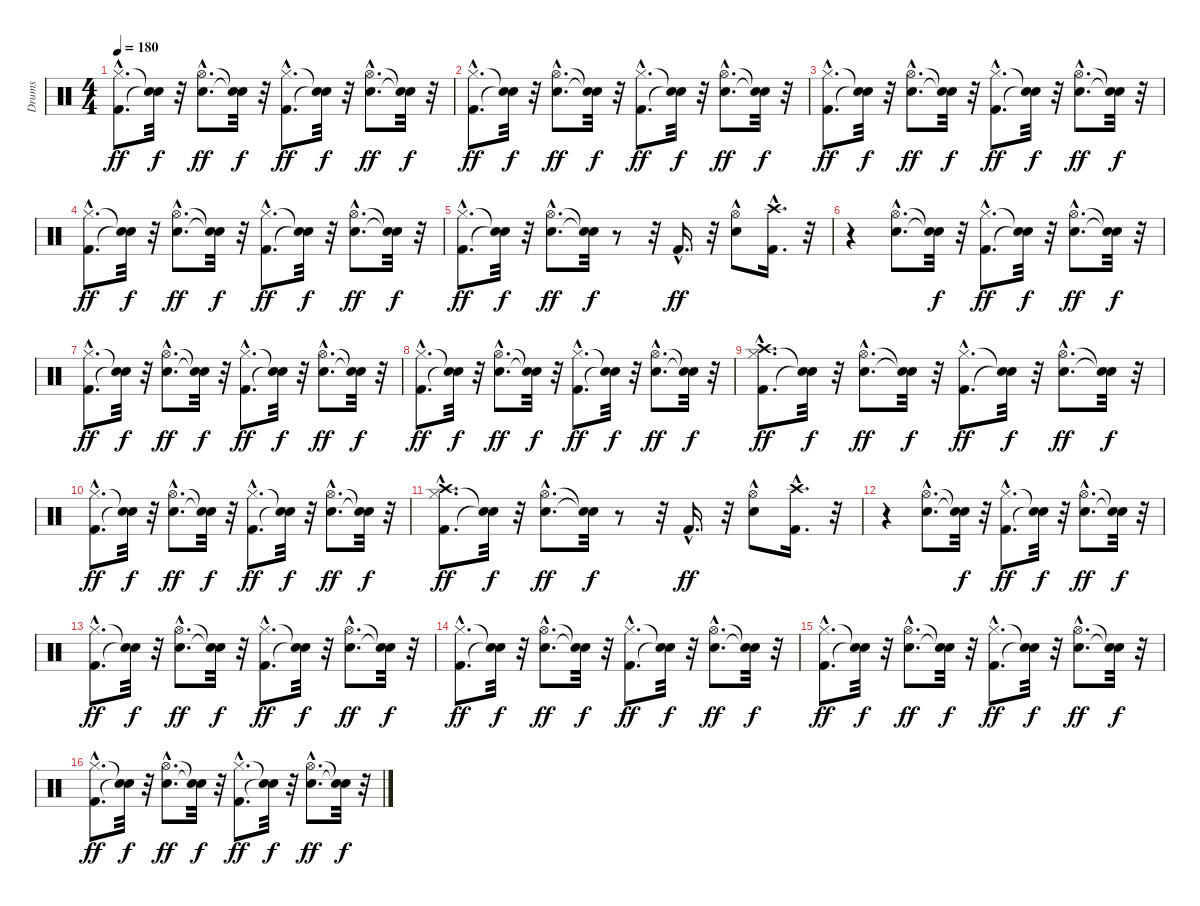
\track ("Drums" "Drums") {instrument percussion}
\staff {score}
\articulation defaults
\ts (4 4)
\tempo 180
\clef neutral
\ks c
("Kick (hit) 2"{hac} "Hi-Hat (closed)"{hac}).8{d dy ff} ("Snare (hit)"{t} "Snare (hit)"{t}).32{dy f} r.32 ("Snare (hit) 2"{hac} "Hi-Hat (open)"{hac}).8{d dy ff} ("Snare (hit)"{t} "Snare (hit)"{t}).32{dy f} r.32 ("Kick (hit) 2"{hac} "Hi-Hat (closed)"{hac}).8{d dy ff} ("Snare (hit)"{t} "Snare (hit)"{t}).32{dy f} r.32 ("Snare (hit) 2"{hac} "Hi-Hat (open)"{hac}).8{d dy ff} ("Snare (hit)"{t} "Snare (hit)"{t}).32{dy f} r.32 |
("Kick (hit) 2"{hac} "Hi-Hat (closed)"{hac}).8{d dy ff} ("Snare (hit)"{t} "Snare (hit)"{t}).32{dy f} r.32 ("Snare (hit) 2"{hac} "Hi-Hat (open)"{hac}).8{d dy ff} ("Snare (hit)"{t} "Snare (hit)"{t}).32{dy f} r.32 ("Kick (hit) 2"{hac} "Hi-Hat (closed)"{hac}).8{d dy ff} ("Snare (hit)"{t} "Snare (hit)"{t}).32{dy f} r.32 ("Snare (hit) 2"{hac} "Hi-Hat (open)"{hac}).8{d dy ff} ("Snare (hit)"{t} "Snare (hit)"{t}).32{dy f} r.32 |
("Kick (hit) 2"{hac} "Hi-Hat (closed)"{hac}).8{d dy ff} ("Snare (hit)"{t} "Snare (hit)"{t}).32{dy f} r.32 ("Snare (hit) 2"{hac} "Hi-Hat (open)"{hac}).8{d dy ff} ("Snare (hit)"{t} "Snare (hit)"{t}).32{dy f} r.32 ("Kick (hit) 2"{hac} "Hi-Hat (closed)"{hac}).8{d dy ff} ("Snare (hit)"{t} "Snare (hit)"{t}).32{dy f} r.32 ("Snare (hit) 2"{hac} "Hi-Hat (open)"{hac}).8{d dy ff} ("Snare (hit)"{t} "Snare (hit)"{t}).32{dy f} r.32 |
("Kick (hit) 2"{hac} "Hi-Hat (closed)"{hac}).8{d dy ff} ("Snare (hit)"{t} "Snare (hit)"{t}).32{dy f} r.32 ("Snare (hit) 2"{hac} "Hi-Hat (open)"{hac}).8{d dy ff} ("Snare (hit)"{t} "Snare (hit)"{t}).32{dy f} r.32 ("Kick (hit) 2"{hac} "Hi-Hat (closed)"{hac}).8{d dy ff} ("Snare (hit)"{t} "Snare (hit)"{t}).32{dy f} r.32 ("Snare (hit) 2"{hac} "Hi-Hat (open)"{hac}).8{d dy ff} ("Snare (hit)"{t} "Snare (hit)"{t}).32{dy f} r.32 |
("Kick (hit) 2"{hac} "Hi-Hat (closed)"{hac}).8{d dy ff} ("Snare (hit)"{t} "Snare (hit)"{t}).32{dy f} r.32 ("Snare (hit) 2"{hac} "Hi-Hat (open)"{hac}).8{d dy ff} ("Snare (hit)"{t} "Snare (hit)"{t}).32{dy f} r.8 r.32 "Kick (hit) 2"{hac}.16{d dy ff} r.32 ("Snare (hit) 2"{hac} "Hi-Hat (open)"{hac}).8 ("Kick (hit) 2"{hac} "Crash high (hit)"{hac}).16{d} r.32 |
r.4 ("Snare (hit) 2"{hac} "Hi-Hat (open)"{hac}).8{d} ("Snare (hit)"{t} "Snare (hit)"{t}).32{dy f} r.32 ("Kick (hit) 2"{hac} "Hi-Hat (closed)"{hac}).8{d dy ff} ("Snare (hit)"{t} "Snare (hit)"{t}).32{dy f} r.32 ("Snare (hit) 2"{hac} "Hi-Hat (open)"{hac}).8{d dy ff} ("Snare (hit)"{t} "Snare (hit)"{t}).32{dy f} r.32 |
("Kick (hit) 2"{hac} "Hi-Hat (closed)"{hac}).8{d dy ff} ("Snare (hit)"{t} "Snare (hit)"{t}).32{dy f} r.32 ("Snare (hit) 2"{hac} "Hi-Hat (open)"{hac}).8{d dy ff} ("Snare (hit)"{t} "Snare (hit)"{t}).32{dy f} r.32 ("Kick (hit) 2"{hac} "Hi-Hat (closed)"{hac}).8{d dy ff} ("Snare (hit)"{t} "Snare (hit)"{t}).32{dy f} r.32 ("Snare (hit) 2"{hac} "Hi-Hat (open)"{hac}).8{d dy ff} ("Snare (hit)"{t} "Snare (hit)"{t}).32{dy f} r.32 |
("Kick (hit) 2"{hac} "Hi-Hat (closed)"{hac}).8{d dy ff} ("Snare (hit)"{t} "Snare (hit)"{t}).32{dy f} r.32 ("Snare (hit) 2"{hac} "Hi-Hat (open)"{hac}).8{d dy ff} ("Snare (hit)"{t} "Snare (hit)"{t}).32{dy f} r.32 ("Kick (hit) 2"{hac} "Hi-Hat (closed)"{hac}).8{d dy ff} ("Snare (hit)"{t} "Snare (hit)"{t}).32{dy f} r.32 ("Snare (hit) 2"{hac} "Hi-Hat (open)"{hac}).8{d dy ff} ("Snare (hit)"{t} "Snare (hit)"{t}).32{dy f} r.32 |
("Kick (hit) 2"{hac} "Hi-Hat (closed)"{hac} "Crash high (hit)"{hac}).8{d dy ff} ("Snare (hit)"{t} "Snare (hit)"{t}).32{dy f} r.32 ("Snare (hit) 2"{hac} "Hi-Hat (open)"{hac}).8{d dy ff} ("Snare (hit)"{t} "Snare (hit)"{t}).32{dy f} r.32 ("Kick (hit) 2"{hac} "Hi-Hat (closed)"{hac}).8{d dy ff} ("Snare (hit)"{t} "Snare (hit)"{t}).32{dy f} r.32 ("Snare (hit) 2"{hac} "Hi-Hat (open)"{hac}).8{d dy ff} ("Snare (hit)"{t} "Snare (hit)"{t}).32{dy f} r.32 |
("Kick (hit) 2"{hac} "Hi-Hat (closed)"{hac}).8{d dy ff} ("Snare (hit)"{t} "Snare (hit)"{t}).32{dy f} r.32 ("Snare (hit) 2"{hac} "Hi-Hat (open)"{hac}).8{d dy ff} ("Snare (hit)"{t} "Snare (hit)"{t}).32{dy f} r.32 ("Kick (hit) 2"{hac} "Hi-Hat (closed)"{hac}).8{d dy ff} ("Snare (hit)"{t} "Snare (hit)"{t}).32{dy f} r.32 ("Snare (hit) 2"{hac} "Hi-Hat (open)"{hac}).8{d dy ff} ("Snare (hit)"{t} "Snare (hit)"{t}).32{dy f} r.32 |
("Kick (hit) 2"{hac} "Hi-Hat (closed)"{hac} "Crash high (hit)"{hac}).8{d dy ff} ("Snare (hit)"{t} "Snare (hit)"{t}).32{dy f} r.32 ("Snare (hit) 2"{hac} "Hi-Hat (open)"{hac}).8{d dy ff} ("Snare (hit)"{t} "Snare (hit)"{t}).32{dy f} r.8 r.32 "Kick (hit) 2"{hac}.16{d dy ff} r.32 ("Snare (hit) 2"{hac} "Hi-Hat (open)"{hac}).8 ("Kick (hit) 2"{hac} "Crash high (hit)"{hac}).16{d} r.32 |
r.4 ("Snare (hit) 2"{hac} "Hi-Hat (open)"{hac}).8{d} ("Snare (hit)"{t} "Snare (hit)"{t}).32{dy f} r.32 ("Kick (hit) 2"{hac} "Hi-Hat (closed)"{hac}).8{d dy ff} ("Snare (hit)"{t} "Snare (hit)"{t}).32{dy f} r.32 ("Snare (hit) 2"{hac} "Hi-Hat (open)"{hac}).8{d dy ff} ("Snare (hit)"{t} "Snare (hit)"{t}).32{dy f} r.32 |
("Kick (hit) 2"{hac} "Hi-Hat (closed)"{hac}).8{d dy ff} ("Snare (hit)"{t} "Snare (hit)"{t}).32{dy f} r.32 ("Snare (hit) 2"{hac} "Hi-Hat (open)"{hac}).8{d dy ff} ("Snare (hit)"{t} "Snare (hit)"{t}).32{dy f} r.32 ("Kick (hit) 2"{hac} "Hi-Hat (closed)"{hac}).8{d dy ff} ("Snare (hit)"{t} "Snare (hit)"{t}).32{dy f} r.32 ("Snare (hit) 2"{hac} "Hi-Hat (open)"{hac}).8{d dy ff} ("Snare (hit)"{t} "Snare (hit)"{t}).32{dy f} r.32 |
("Kick (hit) 2"{hac} "Hi-Hat (closed)"{hac}).8{d dy ff} ("Snare (hit)"{t} "Snare (hit)"{t}).32{dy f} r.32 ("Snare (hit) 2"{hac} "Hi-Hat (open)"{hac}).8{d dy ff} ("Snare (hit)"{t} "Snare (hit)"{t}).32{dy f} r.32 ("Kick (hit) 2"{hac} "Hi-Hat (closed)"{hac}).8{d dy ff} ("Snare (hit)"{t} "Snare (hit)"{t}).32{dy f} r.32 ("Snare (hit) 2"{hac} "Hi-Hat (open)"{hac}).8{d dy ff} ("Snare (hit)"{t} "Snare (hit)"{t}).32{dy f} r.32 |
("Kick (hit) 2"{hac} "Hi-Hat (closed)"{hac}).8{d dy ff} ("Snare (hit)"{t} "Snare (hit)"{t}).32{dy f} r.32 ("Snare (hit) 2"{hac} "Hi-Hat (open)"{hac}).8{d dy ff} ("Snare (hit)"{t} "Snare (hit)"{t}).32{dy f} r.32 ("Kick (hit) 2"{hac} "Hi-Hat (closed)"{hac}).8{d dy ff} ("Snare (hit)"{t} "Snare (hit)"{t}).32{dy f} r.32 ("Snare (hit) 2"{hac} "Hi-Hat (open)"{hac}).8{d dy ff} ("Snare (hit)"{t} "Snare (hit)"{t}).32{dy f} r.32 |
("Kick (hit) 2"{hac} "Hi-Hat (closed)"{hac}).8{d dy ff} ("Snare (hit)"{t} "Snare (hit)"{t}).32{dy f} r.32 ("Snare (hit) 2"{hac} "Hi-Hat (open)"{hac}).8{d dy ff} ("Snare (hit)"{t} "Snare (hit)"{t}).32{dy f} r.32 ("Kick (hit) 2"{hac} "Hi-Hat (closed)"{hac}).8{d dy ff} ("Snare (hit)"{t} "Snare (hit)"{t}).32{dy f} r.32 ("Snare (hit) 2"{hac} "Hi-Hat (open)"{hac}).8{d dy ff} ("Snare (hit)"{t} "Snare (hit)"{t}).32{dy f} r.32
